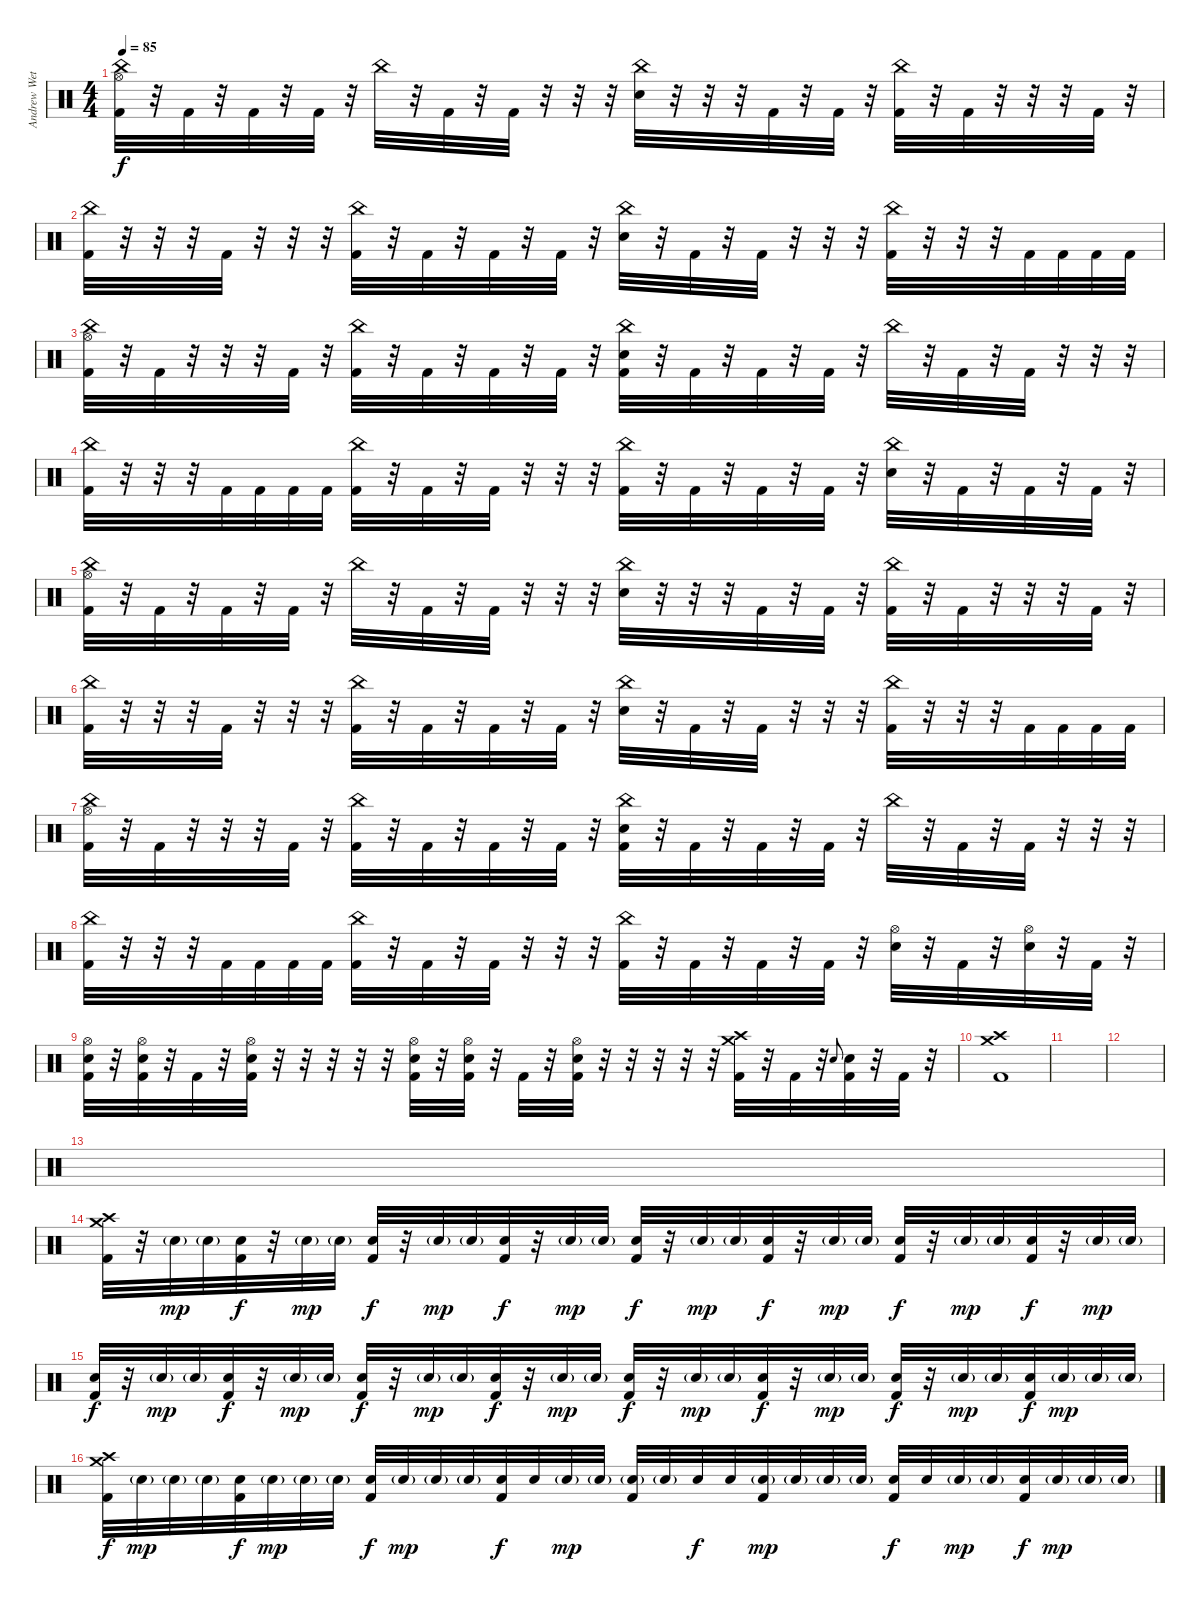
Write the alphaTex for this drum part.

\track ("Andrew Wetzel" "Andrew Wet") {instrument percussion}
\staff {score}
\articulation defaults
\ts (4 4)
\tempo 85
\clef neutral
\ks c
("China (hit)" "Hi-Hat (open)" "Kick (hit) 2").32{dy f} r.32 "Kick (hit) 2".32 r.32 "Kick (hit) 2".32 r.32 "Kick (hit) 2".32 r.32 "China (hit)".32 r.32 "Kick (hit) 2".32 r.32 "Kick (hit) 2".32 r.32 r.32 r.32 ("China (hit)" "Electric Snare (hit)").32 r.32 r.32 r.32 "Kick (hit) 2".32 r.32 "Kick (hit) 2".32 r.32 ("China (hit)" "Kick (hit) 2").32 r.32 "Kick (hit) 2".32 r.32 r.32 r.32 "Kick (hit) 2".32 r.32 |
("China (hit)" "Kick (hit) 2").32 r.32 r.32 r.32 "Kick (hit) 2".32 r.32 r.32 r.32 ("China (hit)" "Kick (hit) 2").32 r.32 "Kick (hit) 2".32 r.32 "Kick (hit) 2".32 r.32 "Kick (hit) 2".32 r.32 ("China (hit)" "Electric Snare (hit)").32 r.32 "Kick (hit) 2".32 r.32 "Kick (hit) 2".32 r.32 r.32 r.32 ("China (hit)" "Kick (hit) 2").32 r.32 r.32 r.32 "Kick (hit) 2".32 "Kick (hit) 2".32 "Kick (hit) 2".32 "Kick (hit) 2".32 |
("China (hit)" "Hi-Hat (open)" "Kick (hit) 2").32 r.32 "Kick (hit) 2".32 r.32 r.32 r.32 "Kick (hit) 2".32 r.32 ("China (hit)" "Kick (hit) 2").32 r.32 "Kick (hit) 2".32 r.32 "Kick (hit) 2".32 r.32 "Kick (hit) 2".32 r.32 ("China (hit)" "Electric Snare (hit)" "Kick (hit) 2").32 r.32 "Kick (hit) 2".32 r.32 "Kick (hit) 2".32 r.32 "Kick (hit) 2".32 r.32 "China (hit)".32 r.32 "Kick (hit) 2".32 r.32 "Kick (hit) 2".32 r.32 r.32 r.32 |
("China (hit)" "Kick (hit) 2").32 r.32 r.32 r.32 "Kick (hit) 2".32 "Kick (hit) 2".32 "Kick (hit) 2".32 "Kick (hit) 2".32 ("China (hit)" "Kick (hit) 2").32 r.32 "Kick (hit) 2".32 r.32 "Kick (hit) 2".32 r.32 r.32 r.32 ("China (hit)" "Kick (hit) 2").32 r.32 "Kick (hit) 2".32 r.32 "Kick (hit) 2".32 r.32 "Kick (hit) 2".32 r.32 ("China (hit)" "Electric Snare (hit)").32 r.32 "Kick (hit) 2".32 r.32 "Kick (hit) 2".32 r.32 "Kick (hit) 2".32 r.32 |
("China (hit)" "Hi-Hat (open)" "Kick (hit) 2").32 r.32 "Kick (hit) 2".32 r.32 "Kick (hit) 2".32 r.32 "Kick (hit) 2".32 r.32 "China (hit)".32 r.32 "Kick (hit) 2".32 r.32 "Kick (hit) 2".32 r.32 r.32 r.32 ("China (hit)" "Electric Snare (hit)").32 r.32 r.32 r.32 "Kick (hit) 2".32 r.32 "Kick (hit) 2".32 r.32 ("China (hit)" "Kick (hit) 2").32 r.32 "Kick (hit) 2".32 r.32 r.32 r.32 "Kick (hit) 2".32 r.32 |
("China (hit)" "Kick (hit) 2").32 r.32 r.32 r.32 "Kick (hit) 2".32 r.32 r.32 r.32 ("China (hit)" "Kick (hit) 2").32 r.32 "Kick (hit) 2".32 r.32 "Kick (hit) 2".32 r.32 "Kick (hit) 2".32 r.32 ("China (hit)" "Electric Snare (hit)").32 r.32 "Kick (hit) 2".32 r.32 "Kick (hit) 2".32 r.32 r.32 r.32 ("China (hit)" "Kick (hit) 2").32 r.32 r.32 r.32 "Kick (hit) 2".32 "Kick (hit) 2".32 "Kick (hit) 2".32 "Kick (hit) 2".32 |
("China (hit)" "Hi-Hat (open)" "Kick (hit) 2").32 r.32 "Kick (hit) 2".32 r.32 r.32 r.32 "Kick (hit) 2".32 r.32 ("China (hit)" "Kick (hit) 2").32 r.32 "Kick (hit) 2".32 r.32 "Kick (hit) 2".32 r.32 "Kick (hit) 2".32 r.32 ("China (hit)" "Electric Snare (hit)" "Kick (hit) 2").32 r.32 "Kick (hit) 2".32 r.32 "Kick (hit) 2".32 r.32 "Kick (hit) 2".32 r.32 "China (hit)".32 r.32 "Kick (hit) 2".32 r.32 "Kick (hit) 2".32 r.32 r.32 r.32 |
("China (hit)" "Kick (hit) 2").32 r.32 r.32 r.32 "Kick (hit) 2".32 "Kick (hit) 2".32 "Kick (hit) 2".32 "Kick (hit) 2".32 ("China (hit)" "Kick (hit) 2").32 r.32 "Kick (hit) 2".32 r.32 "Kick (hit) 2".32 r.32 r.32 r.32 ("China (hit)" "Kick (hit) 2").32 r.32 "Kick (hit) 2".32 r.32 "Kick (hit) 2".32 r.32 "Kick (hit) 2".32 r.32 ("Hi-Hat (open)" "Electric Snare (hit)").32 r.32 "Kick (hit) 2".32 r.32 ("Hi-Hat (open)" "Electric Snare (hit)").32 r.32 "Kick (hit) 2".32 r.32 |
("Hi-Hat (open)" "Electric Snare (hit)" "Kick (hit) 2").32 r.32 ("Hi-Hat (open)" "Electric Snare (hit)" "Kick (hit) 2").32 r.32 "Kick (hit) 2".32 r.32 ("Hi-Hat (open)" "Electric Snare (hit)" "Kick (hit) 2").32 r.32 r.32 r.32 r.32 r.32 ("Hi-Hat (open)" "Electric Snare (hit)" "Kick (hit) 2").32 r.32 ("Hi-Hat (open)" "Electric Snare (hit)" "Kick (hit) 2").32 r.32 "Kick (hit) 2".32 r.32 ("Hi-Hat (open)" "Electric Snare (hit)" "Kick (hit) 2").32 r.32 r.32 r.32 r.32 r.32 ("Crash medium (hit)" "Crash high (hit)" "Kick (hit) 2").32 r.32 "Kick (hit) 2".32 r.32 "Electric Snare (hit)".8{gr onbeat} ("Electric Snare (hit)" "Kick (hit) 2").32 r.32 "Kick (hit) 2".32 r.32 |
("Crash medium (hit)" "Crash high (hit)" "Kick (hit) 2").1 |
|
|
|
("Crash medium (hit)" "Crash high (hit)" "Kick (hit) 2").32 r.32 "Electric Snare (hit)"{g}.32{dy mp} "Electric Snare (hit)"{g}.32 ("Electric Snare (hit)" "Kick (hit) 2").32{dy f} r.32 "Electric Snare (hit)"{g}.32{dy mp} "Electric Snare (hit)"{g}.32 ("Electric Snare (hit)" "Kick (hit) 2").32{dy f} r.32 "Electric Snare (hit)"{g}.32{dy mp} "Electric Snare (hit)"{g}.32 ("Electric Snare (hit)" "Kick (hit) 2").32{dy f} r.32 "Electric Snare (hit)"{g}.32{dy mp} "Electric Snare (hit)"{g}.32 ("Electric Snare (hit)" "Kick (hit) 2").32{dy f} r.32 "Electric Snare (hit)"{g}.32{dy mp} "Electric Snare (hit)"{g}.32 ("Electric Snare (hit)" "Kick (hit) 2").32{dy f} r.32 "Electric Snare (hit)"{g}.32{dy mp} "Electric Snare (hit)"{g}.32 ("Electric Snare (hit)" "Kick (hit) 2").32{dy f} r.32 "Electric Snare (hit)"{g}.32{dy mp} "Electric Snare (hit)"{g}.32 ("Electric Snare (hit)" "Kick (hit) 2").32{dy f} r.32 "Electric Snare (hit)"{g}.32{dy mp} "Electric Snare (hit)"{g}.32 |
("Electric Snare (hit)" "Kick (hit) 2").32{dy f} r.32 "Electric Snare (hit)"{g}.32{dy mp} "Electric Snare (hit)"{g}.32 ("Electric Snare (hit)" "Kick (hit) 2").32{dy f} r.32 "Electric Snare (hit)"{g}.32{dy mp} "Electric Snare (hit)"{g}.32 ("Electric Snare (hit)" "Kick (hit) 2").32{dy f} r.32 "Electric Snare (hit)"{g}.32{dy mp} "Electric Snare (hit)"{g}.32 ("Electric Snare (hit)" "Kick (hit) 2").32{dy f} r.32 "Electric Snare (hit)"{g}.32{dy mp} "Electric Snare (hit)"{g}.32 ("Electric Snare (hit)" "Kick (hit) 2").32{dy f} r.32 "Electric Snare (hit)"{g}.32{dy mp} "Electric Snare (hit)"{g}.32 ("Electric Snare (hit)" "Kick (hit) 2").32{dy f} r.32 "Electric Snare (hit)"{g}.32{dy mp} "Electric Snare (hit)"{g}.32 ("Electric Snare (hit)" "Kick (hit) 2").32{dy f} r.32 "Electric Snare (hit)"{g}.32{dy mp} "Electric Snare (hit)"{g}.32 ("Electric Snare (hit)" "Kick (hit) 2").32{dy f} "Electric Snare (hit)"{g}.32{dy mp} "Electric Snare (hit)"{g}.32 "Electric Snare (hit)"{g}.32 |
("Crash medium (hit)" "Crash high (hit)" "Kick (hit) 2").32{dy f} "Electric Snare (hit)"{g}.32{dy mp} "Electric Snare (hit)"{g}.32 "Electric Snare (hit)"{g}.32 ("Electric Snare (hit)" "Kick (hit) 2").32{dy f} "Electric Snare (hit)"{g}.32{dy mp} "Electric Snare (hit)"{g}.32 "Electric Snare (hit)"{g}.32 ("Electric Snare (hit)" "Kick (hit) 2").32{dy f} "Electric Snare (hit)"{g}.32{dy mp} "Electric Snare (hit)"{g}.32 "Electric Snare (hit)"{g}.32 ("Electric Snare (hit)" "Kick (hit) 2").32{dy f} "Electric Snare (hit)".32 "Electric Snare (hit)"{g}.32{dy mp} "Electric Snare (hit)"{g}.32 ("Electric Snare (hit)"{g} "Kick (hit) 2").32 "Electric Snare (hit)"{g}.32 "Electric Snare (hit)".32{dy f} "Electric Snare (hit)".32 ("Electric Snare (hit)"{g} "Kick (hit) 2").32{dy mp} "Electric Snare (hit)"{g}.32 "Electric Snare (hit)"{g}.32 "Electric Snare (hit)"{g}.32 ("Electric Snare (hit)" "Kick (hit) 2").32{dy f} "Electric Snare (hit)".32 "Electric Snare (hit)"{g}.32{dy mp} "Electric Snare (hit)"{g}.32 ("Electric Snare (hit)" "Kick (hit) 2").32{dy f} "Electric Snare (hit)"{g}.32{dy mp} "Electric Snare (hit)"{g}.32 "Electric Snare (hit)"{g}.32
